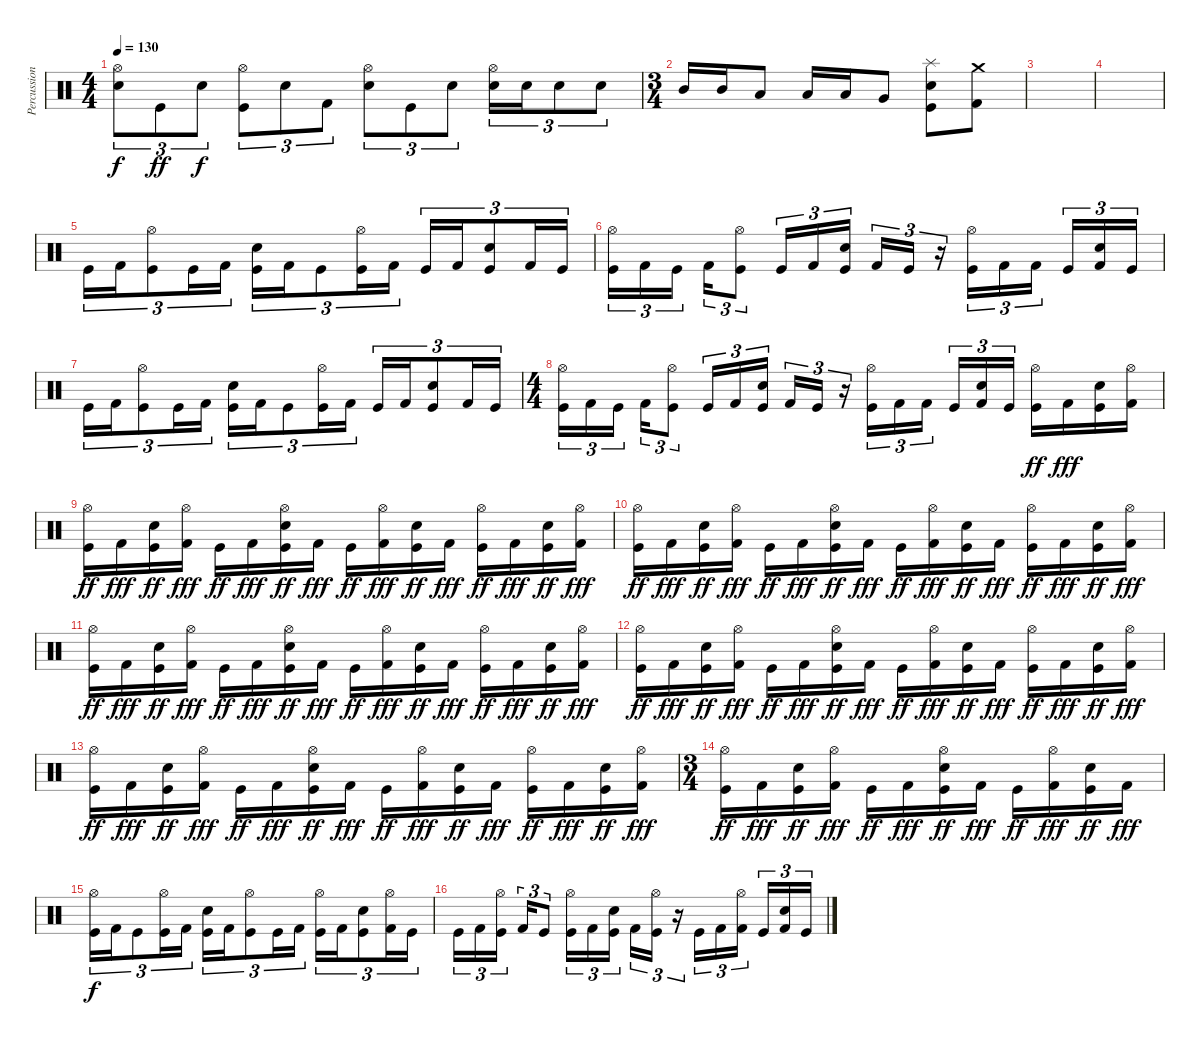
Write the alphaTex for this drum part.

\track ("Percussioni" "Percussion") {instrument percussion}
\staff {score}
\articulation defaults
\ts (4 4)
\tempo 130
\clef neutral
\ks c
("Hi-Hat (open)" "Snare (hit) 2").8{tu (3 2) dy f} "Kick (hit)".8{tu (3 2) dy ff} "Snare (hit) 2".8{tu (3 2) dy f} ("Hi-Hat (open)" "Kick (hit)").8{tu (3 2)} "Snare (hit) 2".8{tu (3 2)} "Kick (hit) 2".8{tu (3 2)} ("Hi-Hat (open)" "Snare (hit) 2").8{tu (3 2)} "Kick (hit)".8{tu (3 2)} "Snare (hit) 2".8{tu (3 2)} ("Hi-Hat (open)" "Snare (hit) 2").16{tu (3 2)} "Snare (hit) 2".16{tu (3 2)} "Snare (hit) 2".8{tu (3 2)} "Snare (hit) 2".8{tu (3 2)} |
\ts (3 4)
"Mid Tom (hit)".16 "Mid Tom (hit)".16 "Low Tom (hit)".8 "Low Tom (hit)".16 "Low Tom (hit)".16 "Very Low Tom (hit)".8 ("Splash (hit)" "Snare (hit) 2" "Kick (hit)").8 ("Crash medium (hit)" "Kick (hit) 2").8 |
|
|
"Kick (hit)".16{tu (3 2)} "Kick (hit) 2".16{tu (3 2)} ("Hi-Hat (open)" "Kick (hit)").8{tu (3 2)} "Kick (hit)".16{tu (3 2)} "Kick (hit) 2".16{tu (3 2)} ("Snare (hit) 2" "Kick (hit)").16{tu (3 2)} "Kick (hit) 2".16{tu (3 2)} "Kick (hit)".8{tu (3 2)} ("Hi-Hat (open)" "Kick (hit)").16{tu (3 2)} "Kick (hit) 2".16{tu (3 2)} "Kick (hit)".16{tu (3 2)} "Kick (hit) 2".16{tu (3 2)} ("Snare (hit) 2" "Kick (hit)").8{tu (3 2)} "Kick (hit) 2".16{tu (3 2)} "Kick (hit)".16{tu (3 2)} |
("Hi-Hat (open)" "Kick (hit)").16{tu (3 2)} "Kick (hit) 2".16{tu (3 2)} "Kick (hit)".16{tu (3 2)} "Kick (hit) 2".16{tu (3 2)} ("Hi-Hat (open)" "Kick (hit)").8{tu (3 2)} "Kick (hit)".16{tu (3 2)} "Kick (hit) 2".16{tu (3 2)} ("Snare (hit) 2" "Kick (hit)").16{tu (3 2)} "Kick (hit) 2".16{tu (3 2)} "Kick (hit)".16{tu (3 2)} r.16{tu (3 2)} ("Hi-Hat (open)" "Kick (hit)").16{tu (3 2)} "Kick (hit) 2".16{tu (3 2)} "Kick (hit) 2".16{tu (3 2)} "Kick (hit)".16{tu (3 2)} ("Snare (hit) 2" "Kick (hit) 2").16{tu (3 2)} "Kick (hit)".16{tu (3 2)} |
"Kick (hit)".16{tu (3 2)} "Kick (hit) 2".16{tu (3 2)} ("Hi-Hat (open)" "Kick (hit)").8{tu (3 2)} "Kick (hit)".16{tu (3 2)} "Kick (hit) 2".16{tu (3 2)} ("Snare (hit) 2" "Kick (hit)").16{tu (3 2)} "Kick (hit) 2".16{tu (3 2)} "Kick (hit)".8{tu (3 2)} ("Hi-Hat (open)" "Kick (hit)").16{tu (3 2)} "Kick (hit) 2".16{tu (3 2)} "Kick (hit)".16{tu (3 2)} "Kick (hit) 2".16{tu (3 2)} ("Snare (hit) 2" "Kick (hit)").8{tu (3 2)} "Kick (hit) 2".16{tu (3 2)} "Kick (hit)".16{tu (3 2)} |
\ts (4 4)
("Hi-Hat (open)" "Kick (hit)").16{tu (3 2)} "Kick (hit) 2".16{tu (3 2)} "Kick (hit)".16{tu (3 2)} "Kick (hit) 2".16{tu (3 2)} ("Hi-Hat (open)" "Kick (hit)").8{tu (3 2)} "Kick (hit)".16{tu (3 2)} "Kick (hit) 2".16{tu (3 2)} ("Snare (hit) 2" "Kick (hit)").16{tu (3 2)} "Kick (hit) 2".16{tu (3 2)} "Kick (hit)".16{tu (3 2)} r.16{tu (3 2)} ("Hi-Hat (open)" "Kick (hit)").16{tu (3 2)} "Kick (hit) 2".16{tu (3 2)} "Kick (hit) 2".16{tu (3 2)} "Kick (hit)".16{tu (3 2)} ("Snare (hit) 2" "Kick (hit) 2").16{tu (3 2)} "Kick (hit)".16{tu (3 2)} ("Hi-Hat (open)" "Kick (hit)").16{dy ff} "Kick (hit) 2".16{dy fff} ("Snare (hit) 2" "Kick (hit)").16 ("Hi-Hat (open)" "Kick (hit) 2").16 |
("Hi-Hat (open)" "Kick (hit)").16{dy ff} "Kick (hit) 2".16{dy fff} ("Snare (hit) 2" "Kick (hit)").16{dy ff} ("Hi-Hat (open)" "Kick (hit) 2").16{dy fff} "Kick (hit)".16{dy ff} "Kick (hit) 2".16{dy fff} ("Hi-Hat (open)" "Snare (hit) 2" "Kick (hit)").16{dy ff} "Kick (hit) 2".16{dy fff} "Kick (hit)".16{dy ff} ("Hi-Hat (open)" "Kick (hit) 2").16{dy fff} ("Snare (hit) 2" "Kick (hit)").16{dy ff} "Kick (hit) 2".16{dy fff} ("Hi-Hat (open)" "Kick (hit)").16{dy ff} "Kick (hit) 2".16{dy fff} ("Snare (hit) 2" "Kick (hit)").16{dy ff} ("Hi-Hat (open)" "Kick (hit) 2").16{dy fff} |
("Hi-Hat (open)" "Kick (hit)").16{dy ff} "Kick (hit) 2".16{dy fff} ("Snare (hit) 2" "Kick (hit)").16{dy ff} ("Hi-Hat (open)" "Kick (hit) 2").16{dy fff} "Kick (hit)".16{dy ff} "Kick (hit) 2".16{dy fff} ("Hi-Hat (open)" "Snare (hit) 2" "Kick (hit)").16{dy ff} "Kick (hit) 2".16{dy fff} "Kick (hit)".16{dy ff} ("Hi-Hat (open)" "Kick (hit) 2").16{dy fff} ("Snare (hit) 2" "Kick (hit)").16{dy ff} "Kick (hit) 2".16{dy fff} ("Hi-Hat (open)" "Kick (hit)").16{dy ff} "Kick (hit) 2".16{dy fff} ("Snare (hit) 2" "Kick (hit)").16{dy ff} ("Hi-Hat (open)" "Kick (hit) 2").16{dy fff} |
("Hi-Hat (open)" "Kick (hit)").16{dy ff} "Kick (hit) 2".16{dy fff} ("Snare (hit) 2" "Kick (hit)").16{dy ff} ("Hi-Hat (open)" "Kick (hit) 2").16{dy fff} "Kick (hit)".16{dy ff} "Kick (hit) 2".16{dy fff} ("Hi-Hat (open)" "Snare (hit) 2" "Kick (hit)").16{dy ff} "Kick (hit) 2".16{dy fff} "Kick (hit)".16{dy ff} ("Hi-Hat (open)" "Kick (hit) 2").16{dy fff} ("Snare (hit) 2" "Kick (hit)").16{dy ff} "Kick (hit) 2".16{dy fff} ("Hi-Hat (open)" "Kick (hit)").16{dy ff} "Kick (hit) 2".16{dy fff} ("Snare (hit) 2" "Kick (hit)").16{dy ff} ("Hi-Hat (open)" "Kick (hit) 2").16{dy fff} |
("Hi-Hat (open)" "Kick (hit)").16{dy ff} "Kick (hit) 2".16{dy fff} ("Snare (hit) 2" "Kick (hit)").16{dy ff} ("Hi-Hat (open)" "Kick (hit) 2").16{dy fff} "Kick (hit)".16{dy ff} "Kick (hit) 2".16{dy fff} ("Hi-Hat (open)" "Snare (hit) 2" "Kick (hit)").16{dy ff} "Kick (hit) 2".16{dy fff} "Kick (hit)".16{dy ff} ("Hi-Hat (open)" "Kick (hit) 2").16{dy fff} ("Snare (hit) 2" "Kick (hit)").16{dy ff} "Kick (hit) 2".16{dy fff} ("Hi-Hat (open)" "Kick (hit)").16{dy ff} "Kick (hit) 2".16{dy fff} ("Snare (hit) 2" "Kick (hit)").16{dy ff} ("Hi-Hat (open)" "Kick (hit) 2").16{dy fff} |
("Hi-Hat (open)" "Kick (hit)").16{dy ff} "Kick (hit) 2".16{dy fff} ("Snare (hit) 2" "Kick (hit)").16{dy ff} ("Hi-Hat (open)" "Kick (hit) 2").16{dy fff} "Kick (hit)".16{dy ff} "Kick (hit) 2".16{dy fff} ("Hi-Hat (open)" "Snare (hit) 2" "Kick (hit)").16{dy ff} "Kick (hit) 2".16{dy fff} "Kick (hit)".16{dy ff} ("Hi-Hat (open)" "Kick (hit) 2").16{dy fff} ("Snare (hit) 2" "Kick (hit)").16{dy ff} "Kick (hit) 2".16{dy fff} ("Hi-Hat (open)" "Kick (hit)").16{dy ff} "Kick (hit) 2".16{dy fff} ("Snare (hit) 2" "Kick (hit)").16{dy ff} ("Hi-Hat (open)" "Kick (hit) 2").16{dy fff} |
\ts (3 4)
("Hi-Hat (open)" "Kick (hit)").16{dy ff} "Kick (hit) 2".16{dy fff} ("Snare (hit) 2" "Kick (hit)").16{dy ff} ("Hi-Hat (open)" "Kick (hit) 2").16{dy fff} "Kick (hit)".16{dy ff} "Kick (hit) 2".16{dy fff} ("Hi-Hat (open)" "Snare (hit) 2" "Kick (hit)").16{dy ff} "Kick (hit) 2".16{dy fff} "Kick (hit)".16{dy ff} ("Hi-Hat (open)" "Kick (hit) 2").16{dy fff} ("Snare (hit) 2" "Kick (hit)").16{dy ff} "Kick (hit) 2".16{dy fff} |
("Hi-Hat (open)" "Kick (hit)").16{tu (3 2) dy f} "Kick (hit) 2".16{tu (3 2)} "Kick (hit)".8{tu (3 2)} ("Hi-Hat (open)" "Kick (hit)").16{tu (3 2)} "Kick (hit) 2".16{tu (3 2)} ("Snare (hit) 2" "Kick (hit)").16{tu (3 2)} "Kick (hit) 2".16{tu (3 2)} ("Hi-Hat (open)" "Kick (hit)").8{tu (3 2)} "Kick (hit)".16{tu (3 2)} "Kick (hit) 2".16{tu (3 2)} ("Hi-Hat (open)" "Kick (hit)").16{tu (3 2)} "Kick (hit) 2".16{tu (3 2)} ("Snare (hit) 2" "Kick (hit)").8{tu (3 2)} ("Hi-Hat (open)" "Kick (hit) 2").16{tu (3 2)} "Kick (hit)".16{tu (3 2)} |
"Kick (hit)".16{tu (3 2)} "Kick (hit) 2".16{tu (3 2)} ("Hi-Hat (open)" "Kick (hit)").16{tu (3 2)} "Kick (hit) 2".16{tu (3 2)} "Kick (hit)".8{tu (3 2)} ("Hi-Hat (open)" "Kick (hit)").16{tu (3 2)} "Kick (hit) 2".16{tu (3 2)} ("Snare (hit) 2" "Kick (hit)").16{tu (3 2)} "Kick (hit) 2".16{tu (3 2)} ("Hi-Hat (open)" "Kick (hit)").16{tu (3 2)} r.16{tu (3 2)} "Kick (hit)".16{tu (3 2)} "Kick (hit) 2".16{tu (3 2)} ("Hi-Hat (open)" "Kick (hit) 2").16{tu (3 2)} "Kick (hit)".16{tu (3 2)} ("Snare (hit) 2" "Kick (hit) 2").16{tu (3 2)} "Kick (hit)".16{tu (3 2)}
